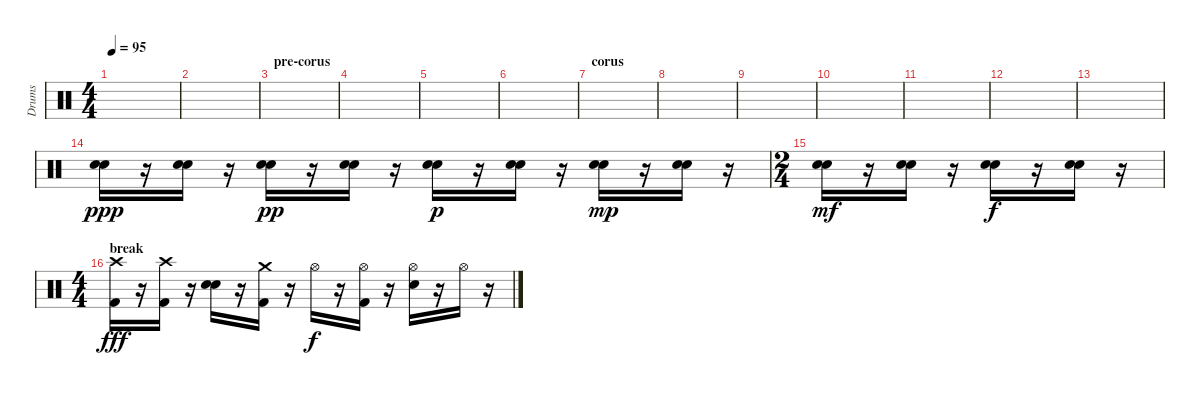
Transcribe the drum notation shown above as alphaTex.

\track ("Drums" "Drums") {instrument percussion}
\staff {score}
\articulation defaults
\ts (4 4)
\tempo 95
\clef neutral
\ks c
|
|
\section ("" "pre-corus")
|
|
|
|
\section ("" "corus")
|
|
|
|
|
|
|
("Snare (hit) 2" "Electric Snare (hit)").16{dy ppp} r.16 ("Snare (hit) 2" "Electric Snare (hit)").16 r.16 ("Snare (hit) 2" "Electric Snare (hit)").16{dy pp} r.16 ("Snare (hit) 2" "Electric Snare (hit)").16 r.16 ("Snare (hit) 2" "Electric Snare (hit)").16{dy p} r.16 ("Snare (hit) 2" "Electric Snare (hit)").16 r.16 ("Snare (hit) 2" "Electric Snare (hit)").16{dy mp} r.16 ("Snare (hit) 2" "Electric Snare (hit)").16 r.16 |
\ts (2 4)
("Snare (hit) 2" "Electric Snare (hit)").16{dy mf} r.16 ("Snare (hit) 2" "Electric Snare (hit)").16 r.16 ("Snare (hit) 2" "Electric Snare (hit)").16{dy f} r.16 ("Snare (hit) 2" "Electric Snare (hit)").16 r.16 |
\ts (4 4)
\section ("" "break")
("Crash high (hit)" "Kick (hit) 2").16{dy fff} r.16 ("Crash high (hit)" "Kick (hit) 2").16 r.16 ("Snare (hit) 2" "Electric Snare (hit)").16 r.16 ("Crash medium (hit)" "Kick (hit) 2").16 r.16 "Hi-Hat (open)".16{dy f} r.16 ("Hi-Hat (open)" "Kick (hit) 2").16 r.16 ("Hi-Hat (open)" "Electric Snare (hit)").16 r.16 "Hi-Hat (open)".16 r.16
